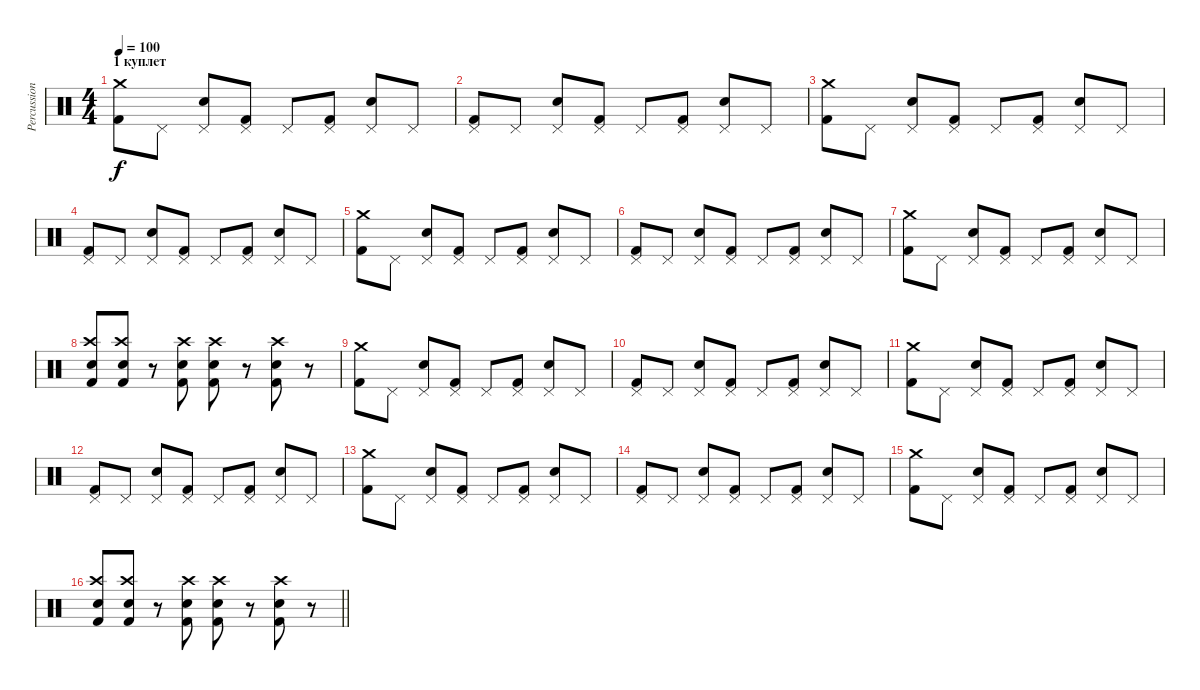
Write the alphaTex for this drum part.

\track ("Percussion" "Percussion") {instrument percussion}
\staff {score}
\articulation defaults
\ts (4 4)
\section ("" "1 куплет")
\tempo 100
\clef neutral
\ks c
("Crash medium (hit)" "Kick (hit) 2").8{dy f} "Pedal Hi-Hat (hit)".8 ("Pedal Hi-Hat (hit)" "Electric Snare (hit)").8 ("Pedal Hi-Hat (hit)" "Kick (hit) 2").8 "Pedal Hi-Hat (hit)".8 ("Pedal Hi-Hat (hit)" "Kick (hit) 2").8 ("Pedal Hi-Hat (hit)" "Electric Snare (hit)").8 "Pedal Hi-Hat (hit)".8 |
("Pedal Hi-Hat (hit)" "Kick (hit) 2").8 "Pedal Hi-Hat (hit)".8 ("Pedal Hi-Hat (hit)" "Electric Snare (hit)").8 ("Pedal Hi-Hat (hit)" "Kick (hit) 2").8 "Pedal Hi-Hat (hit)".8 ("Pedal Hi-Hat (hit)" "Kick (hit) 2").8 ("Pedal Hi-Hat (hit)" "Electric Snare (hit)").8 "Pedal Hi-Hat (hit)".8 |
("Crash medium (hit)" "Kick (hit) 2").8 "Pedal Hi-Hat (hit)".8 ("Pedal Hi-Hat (hit)" "Electric Snare (hit)").8 ("Pedal Hi-Hat (hit)" "Kick (hit) 2").8 "Pedal Hi-Hat (hit)".8 ("Pedal Hi-Hat (hit)" "Kick (hit) 2").8 ("Pedal Hi-Hat (hit)" "Electric Snare (hit)").8 "Pedal Hi-Hat (hit)".8 |
("Pedal Hi-Hat (hit)" "Kick (hit) 2").8 "Pedal Hi-Hat (hit)".8 ("Pedal Hi-Hat (hit)" "Electric Snare (hit)").8 ("Pedal Hi-Hat (hit)" "Kick (hit) 2").8 "Pedal Hi-Hat (hit)".8 ("Pedal Hi-Hat (hit)" "Kick (hit) 2").8 ("Pedal Hi-Hat (hit)" "Electric Snare (hit)").8 "Pedal Hi-Hat (hit)".8 |
("Crash medium (hit)" "Kick (hit) 2").8 "Pedal Hi-Hat (hit)".8 ("Pedal Hi-Hat (hit)" "Electric Snare (hit)").8 ("Pedal Hi-Hat (hit)" "Kick (hit) 2").8 "Pedal Hi-Hat (hit)".8 ("Pedal Hi-Hat (hit)" "Kick (hit) 2").8 ("Pedal Hi-Hat (hit)" "Electric Snare (hit)").8 "Pedal Hi-Hat (hit)".8 |
("Pedal Hi-Hat (hit)" "Kick (hit) 2").8 "Pedal Hi-Hat (hit)".8 ("Pedal Hi-Hat (hit)" "Electric Snare (hit)").8 ("Pedal Hi-Hat (hit)" "Kick (hit) 2").8 "Pedal Hi-Hat (hit)".8 ("Pedal Hi-Hat (hit)" "Kick (hit) 2").8 ("Pedal Hi-Hat (hit)" "Electric Snare (hit)").8 "Pedal Hi-Hat (hit)".8 |
("Crash medium (hit)" "Kick (hit) 2").8 "Pedal Hi-Hat (hit)".8 ("Pedal Hi-Hat (hit)" "Electric Snare (hit)").8 ("Pedal Hi-Hat (hit)" "Kick (hit) 2").8 "Pedal Hi-Hat (hit)".8 ("Pedal Hi-Hat (hit)" "Kick (hit) 2").8 ("Pedal Hi-Hat (hit)" "Electric Snare (hit)").8 "Pedal Hi-Hat (hit)".8 |
("Crash high (hit)" "Snare (hit) 2" "Kick (hit) 2").8 ("Crash high (hit)" "Snare (hit) 2" "Kick (hit) 2").8 r.8 ("Crash high (hit)" "Electric Snare (hit)" "Kick (hit) 2").8 ("Crash high (hit)" "Electric Snare (hit)" "Kick (hit) 2").8 r.8 ("Crash high (hit)" "Electric Snare (hit)" "Kick (hit) 2").8 r.8 |
("Crash medium (hit)" "Kick (hit) 2").8 "Pedal Hi-Hat (hit)".8 ("Pedal Hi-Hat (hit)" "Electric Snare (hit)").8 ("Pedal Hi-Hat (hit)" "Kick (hit) 2").8 "Pedal Hi-Hat (hit)".8 ("Pedal Hi-Hat (hit)" "Kick (hit) 2").8 ("Pedal Hi-Hat (hit)" "Electric Snare (hit)").8 "Pedal Hi-Hat (hit)".8 |
("Pedal Hi-Hat (hit)" "Kick (hit) 2").8 "Pedal Hi-Hat (hit)".8 ("Pedal Hi-Hat (hit)" "Electric Snare (hit)").8 ("Pedal Hi-Hat (hit)" "Kick (hit) 2").8 "Pedal Hi-Hat (hit)".8 ("Pedal Hi-Hat (hit)" "Kick (hit) 2").8 ("Pedal Hi-Hat (hit)" "Electric Snare (hit)").8 "Pedal Hi-Hat (hit)".8 |
("Crash medium (hit)" "Kick (hit) 2").8 "Pedal Hi-Hat (hit)".8 ("Pedal Hi-Hat (hit)" "Electric Snare (hit)").8 ("Pedal Hi-Hat (hit)" "Kick (hit) 2").8 "Pedal Hi-Hat (hit)".8 ("Pedal Hi-Hat (hit)" "Kick (hit) 2").8 ("Pedal Hi-Hat (hit)" "Electric Snare (hit)").8 "Pedal Hi-Hat (hit)".8 |
("Pedal Hi-Hat (hit)" "Kick (hit) 2").8 "Pedal Hi-Hat (hit)".8 ("Pedal Hi-Hat (hit)" "Electric Snare (hit)").8 ("Pedal Hi-Hat (hit)" "Kick (hit) 2").8 "Pedal Hi-Hat (hit)".8 ("Pedal Hi-Hat (hit)" "Kick (hit) 2").8 ("Pedal Hi-Hat (hit)" "Electric Snare (hit)").8 "Pedal Hi-Hat (hit)".8 |
("Crash medium (hit)" "Kick (hit) 2").8 "Pedal Hi-Hat (hit)".8 ("Pedal Hi-Hat (hit)" "Electric Snare (hit)").8 ("Pedal Hi-Hat (hit)" "Kick (hit) 2").8 "Pedal Hi-Hat (hit)".8 ("Pedal Hi-Hat (hit)" "Kick (hit) 2").8 ("Pedal Hi-Hat (hit)" "Electric Snare (hit)").8 "Pedal Hi-Hat (hit)".8 |
("Pedal Hi-Hat (hit)" "Kick (hit) 2").8 "Pedal Hi-Hat (hit)".8 ("Pedal Hi-Hat (hit)" "Electric Snare (hit)").8 ("Pedal Hi-Hat (hit)" "Kick (hit) 2").8 "Pedal Hi-Hat (hit)".8 ("Pedal Hi-Hat (hit)" "Kick (hit) 2").8 ("Pedal Hi-Hat (hit)" "Electric Snare (hit)").8 "Pedal Hi-Hat (hit)".8 |
("Crash medium (hit)" "Kick (hit) 2").8 "Pedal Hi-Hat (hit)".8 ("Pedal Hi-Hat (hit)" "Electric Snare (hit)").8 ("Pedal Hi-Hat (hit)" "Kick (hit) 2").8 "Pedal Hi-Hat (hit)".8 ("Pedal Hi-Hat (hit)" "Kick (hit) 2").8 ("Pedal Hi-Hat (hit)" "Electric Snare (hit)").8 "Pedal Hi-Hat (hit)".8 |
\barLineRight lightlight
("Crash high (hit)" "Snare (hit) 2" "Kick (hit) 2").8 ("Crash high (hit)" "Snare (hit) 2" "Kick (hit) 2").8 r.8 ("Crash high (hit)" "Electric Snare (hit)" "Kick (hit) 2").8 ("Crash high (hit)" "Electric Snare (hit)" "Kick (hit) 2").8 r.8 ("Crash high (hit)" "Electric Snare (hit)" "Kick (hit) 2").8 r.8
